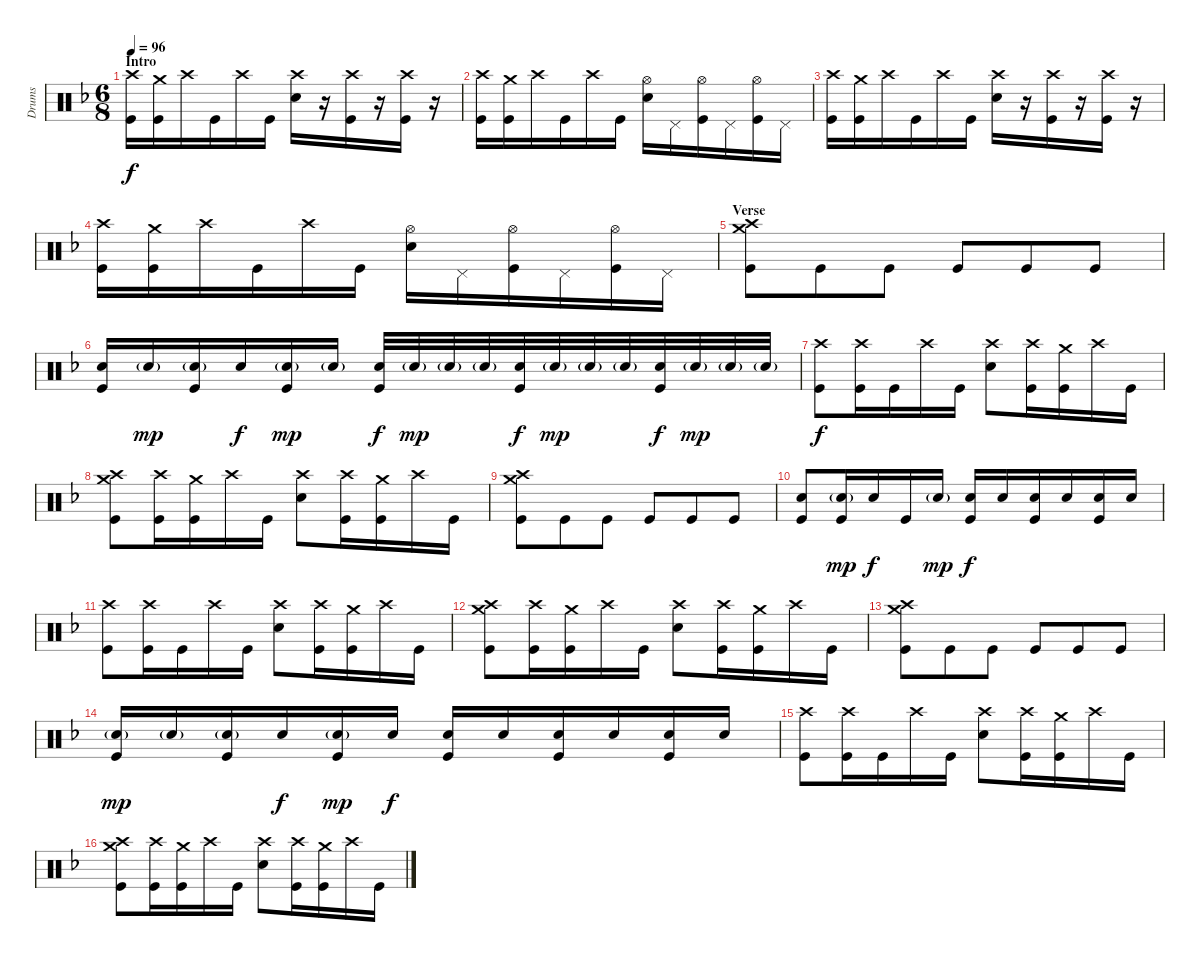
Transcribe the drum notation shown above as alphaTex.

\track ("Drums" "Drums") {instrument percussion}
\staff {score}
\articulation defaults
\ts (6 8)
\section ("" "Intro")
\tempo 96
\clef neutral
\ks f
("Crash high (hit)" "Kick (hit)").16{dy f} ("Crash medium (hit)" "Kick (hit)").16 "Crash high (hit)".16 "Kick (hit)".16 "Crash high (hit)".16 "Kick (hit)".16 ("Crash high (hit)" "Snare (hit) 2").16 r.16 ("Crash high (hit)" "Kick (hit)").16 r.16 ("Crash high (hit)" "Kick (hit)").16 r.16 |
("Crash high (hit)" "Kick (hit)").16 ("Crash medium (hit)" "Kick (hit)").16 "Crash high (hit)".16 "Kick (hit)".16 "Crash high (hit)".16 "Kick (hit)".16 ("Hi-Hat (open)" "Snare (hit) 2").16 "Pedal Hi-Hat (hit)".16 ("Hi-Hat (open)" "Kick (hit)").16 "Pedal Hi-Hat (hit)".16 ("Hi-Hat (open)" "Kick (hit)").16 "Pedal Hi-Hat (hit)".16 |
("Crash high (hit)" "Kick (hit)").16 ("Crash medium (hit)" "Kick (hit)").16 "Crash high (hit)".16 "Kick (hit)".16 "Crash high (hit)".16 "Kick (hit)".16 ("Crash high (hit)" "Snare (hit) 2").16 r.16 ("Crash high (hit)" "Kick (hit)").16 r.16 ("Crash high (hit)" "Kick (hit)").16 r.16 |
("Crash high (hit)" "Kick (hit)").16 ("Crash medium (hit)" "Kick (hit)").16 "Crash high (hit)".16 "Kick (hit)".16 "Crash high (hit)".16 "Kick (hit)".16 ("Hi-Hat (open)" "Snare (hit) 2").16 "Pedal Hi-Hat (hit)".16 ("Hi-Hat (open)" "Kick (hit)").16 "Pedal Hi-Hat (hit)".16 ("Hi-Hat (open)" "Kick (hit)").16 "Pedal Hi-Hat (hit)".16 |
\section ("" "Verse")
("Crash medium (hit)" "Crash high (hit)" "Kick (hit)").8 "Kick (hit)".8 "Kick (hit)".8 "Kick (hit)".8 "Kick (hit)".8 "Kick (hit)".8 |
("Snare (hit) 2" "Kick (hit)").16 "Snare (hit) 2"{g}.16{dy mp} ("Snare (hit) 2"{g} "Kick (hit)").16 "Snare (hit) 2".16{dy f} ("Snare (hit) 2"{g} "Kick (hit)").16{dy mp} "Snare (hit) 2"{g}.16 ("Snare (hit) 2" "Kick (hit)").32{dy f} "Snare (hit) 2"{g}.32{dy mp} "Snare (hit) 2"{g}.32 "Snare (hit) 2"{g}.32 ("Snare (hit) 2" "Kick (hit)").32{dy f} "Snare (hit) 2"{g}.32{dy mp} "Snare (hit) 2"{g}.32 "Snare (hit) 2"{g}.32 ("Snare (hit) 2" "Kick (hit)").32{dy f} "Snare (hit) 2"{g}.32{dy mp} "Snare (hit) 2"{g}.32 "Snare (hit) 2"{g}.32 |
("Crash high (hit)" "Kick (hit)").8{dy f} ("Crash high (hit)" "Kick (hit)").16 "Kick (hit)".16 "Crash high (hit)".16 "Kick (hit)".16 ("Crash high (hit)" "Snare (hit) 2").8 ("Crash high (hit)" "Kick (hit)").16 ("Crash medium (hit)" "Kick (hit)").16 "Crash high (hit)".16 "Kick (hit)".16 |
("Crash medium (hit)" "Crash high (hit)" "Kick (hit)").8 ("Crash high (hit)" "Kick (hit)").16 ("Crash medium (hit)" "Kick (hit)").16 "Crash high (hit)".16 "Kick (hit)".16 ("Crash high (hit)" "Snare (hit) 2").8 ("Crash high (hit)" "Kick (hit)").16 ("Crash medium (hit)" "Kick (hit)").16 "Crash high (hit)".16 "Kick (hit)".16 |
("Crash medium (hit)" "Crash high (hit)" "Kick (hit)").8 "Kick (hit)".8 "Kick (hit)".8 "Kick (hit)".8 "Kick (hit)".8 "Kick (hit)".8 |
("Snare (hit) 2" "Kick (hit)").8 ("Snare (hit) 2"{g} "Kick (hit)").16{dy mp} "Snare (hit) 2".16{dy f} "Kick (hit)".16 "Snare (hit) 2"{g}.16{dy mp} ("Snare (hit) 2" "Kick (hit)").16{dy f} "Snare (hit) 2".16 ("Snare (hit) 2" "Kick (hit)").16 "Snare (hit) 2".16 ("Snare (hit) 2" "Kick (hit)").16 "Snare (hit) 2".16 |
("Crash high (hit)" "Kick (hit)").8 ("Crash high (hit)" "Kick (hit)").16 "Kick (hit)".16 "Crash high (hit)".16 "Kick (hit)".16 ("Crash high (hit)" "Snare (hit) 2").8 ("Crash high (hit)" "Kick (hit)").16 ("Crash medium (hit)" "Kick (hit)").16 "Crash high (hit)".16 "Kick (hit)".16 |
("Crash medium (hit)" "Crash high (hit)" "Kick (hit)").8 ("Crash high (hit)" "Kick (hit)").16 ("Crash medium (hit)" "Kick (hit)").16 "Crash high (hit)".16 "Kick (hit)".16 ("Crash high (hit)" "Snare (hit) 2").8 ("Crash high (hit)" "Kick (hit)").16 ("Crash medium (hit)" "Kick (hit)").16 "Crash high (hit)".16 "Kick (hit)".16 |
("Crash medium (hit)" "Crash high (hit)" "Kick (hit)").8 "Kick (hit)".8 "Kick (hit)".8 "Kick (hit)".8 "Kick (hit)".8 "Kick (hit)".8 |
("Snare (hit) 2"{g} "Kick (hit)").16{dy mp} "Snare (hit) 2"{g}.16 ("Snare (hit) 2"{g} "Kick (hit)").16 "Snare (hit) 2".16{dy f} ("Snare (hit) 2"{g} "Kick (hit)").16{dy mp} "Snare (hit) 2".16{dy f} ("Snare (hit) 2" "Kick (hit)").16 "Snare (hit) 2".16 ("Snare (hit) 2" "Kick (hit)").16 "Snare (hit) 2".16 ("Snare (hit) 2" "Kick (hit)").16 "Snare (hit) 2".16 |
("Crash high (hit)" "Kick (hit)").8 ("Crash high (hit)" "Kick (hit)").16 "Kick (hit)".16 "Crash high (hit)".16 "Kick (hit)".16 ("Crash high (hit)" "Snare (hit) 2").8 ("Crash high (hit)" "Kick (hit)").16 ("Crash medium (hit)" "Kick (hit)").16 "Crash high (hit)".16 "Kick (hit)".16 |
("Crash medium (hit)" "Crash high (hit)" "Kick (hit)").8 ("Crash high (hit)" "Kick (hit)").16 ("Crash medium (hit)" "Kick (hit)").16 "Crash high (hit)".16 "Kick (hit)".16 ("Crash high (hit)" "Snare (hit) 2").8 ("Crash high (hit)" "Kick (hit)").16 ("Crash medium (hit)" "Kick (hit)").16 "Crash high (hit)".16 "Kick (hit)".16
